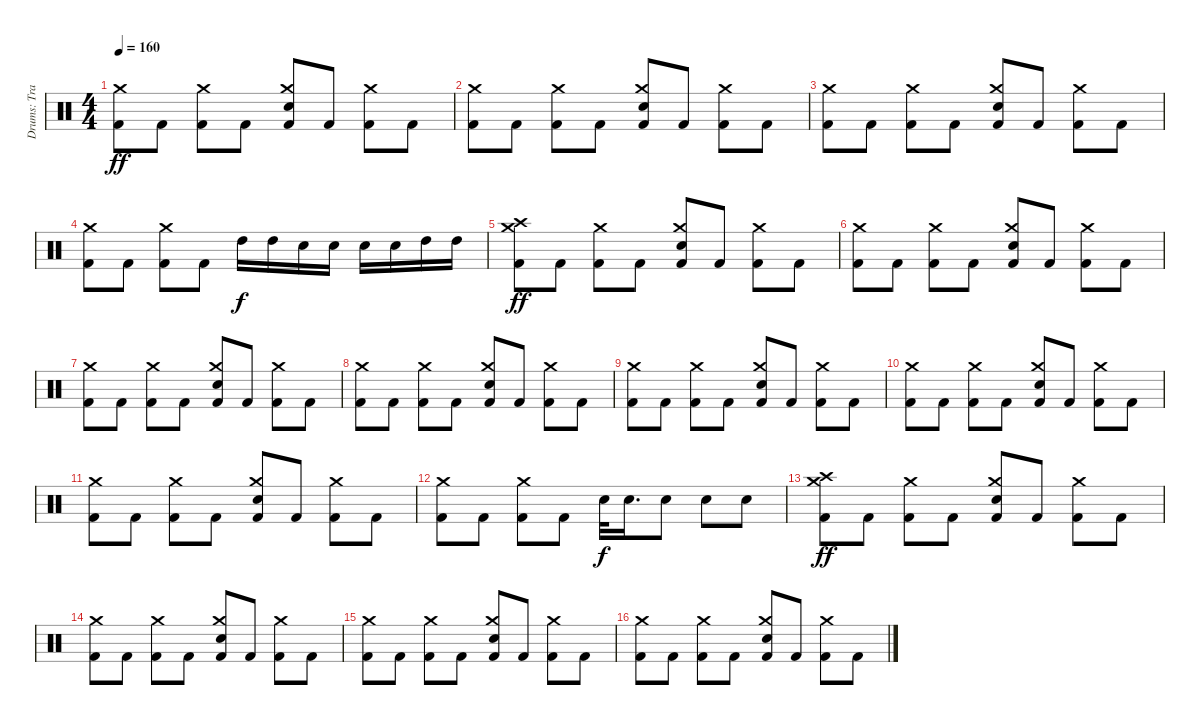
\track ("Drums: Travis Clarke" "Drums: Tra") {instrument percussion}
\staff {score}
\articulation defaults
\ts (4 4)
\tempo 160
\clef neutral
\ks c
("Kick (hit) 2" "Crash medium (hit)").8{dy ff} "Kick (hit) 2".8 ("Kick (hit) 2" "Crash medium (hit)").8 "Kick (hit) 2".8 ("Kick (hit) 2" "Snare (hit) 2" "Crash medium (hit)").8 "Kick (hit) 2".8 ("Kick (hit) 2" "Crash medium (hit)").8 "Kick (hit) 2".8 |
("Kick (hit) 2" "Crash medium (hit)").8 "Kick (hit) 2".8 ("Kick (hit) 2" "Crash medium (hit)").8 "Kick (hit) 2".8 ("Kick (hit) 2" "Snare (hit) 2" "Crash medium (hit)").8 "Kick (hit) 2".8 ("Kick (hit) 2" "Crash medium (hit)").8 "Kick (hit) 2".8 |
("Kick (hit) 2" "Crash medium (hit)").8 "Kick (hit) 2".8 ("Kick (hit) 2" "Crash medium (hit)").8 "Kick (hit) 2".8 ("Kick (hit) 2" "Snare (hit) 2" "Crash medium (hit)").8 "Kick (hit) 2".8 ("Kick (hit) 2" "Crash medium (hit)").8 "Kick (hit) 2".8 |
("Kick (hit) 2" "Crash medium (hit)").8 "Kick (hit) 2".8 ("Kick (hit) 2" "Crash medium (hit)").8 "Kick (hit) 2".8 "High Tom (hit)".16{dy f} "High Tom (hit)".16 "Snare (hit) 2".16 "Snare (hit) 2".16 "Snare (hit) 2".16 "Snare (hit) 2".16 "High Tom (hit)".16 "High Tom (hit)".16 |
("Kick (hit) 2" "Crash high (hit)" "Crash medium (hit)").8{dy ff} "Kick (hit) 2".8 ("Kick (hit) 2" "Crash medium (hit)").8 "Kick (hit) 2".8 ("Kick (hit) 2" "Snare (hit) 2" "Crash medium (hit)").8 "Kick (hit) 2".8 ("Kick (hit) 2" "Crash medium (hit)").8 "Kick (hit) 2".8 |
("Kick (hit) 2" "Crash medium (hit)").8 "Kick (hit) 2".8 ("Kick (hit) 2" "Crash medium (hit)").8 "Kick (hit) 2".8 ("Kick (hit) 2" "Snare (hit) 2" "Crash medium (hit)").8 "Kick (hit) 2".8 ("Kick (hit) 2" "Crash medium (hit)").8 "Kick (hit) 2".8 |
("Kick (hit) 2" "Crash medium (hit)").8 "Kick (hit) 2".8 ("Kick (hit) 2" "Crash medium (hit)").8 "Kick (hit) 2".8 ("Kick (hit) 2" "Snare (hit) 2" "Crash medium (hit)").8 "Kick (hit) 2".8 ("Kick (hit) 2" "Crash medium (hit)").8 "Kick (hit) 2".8 |
("Kick (hit) 2" "Crash medium (hit)").8 "Kick (hit) 2".8 ("Kick (hit) 2" "Crash medium (hit)").8 "Kick (hit) 2".8 ("Kick (hit) 2" "Snare (hit) 2" "Crash medium (hit)").8 "Kick (hit) 2".8 ("Kick (hit) 2" "Crash medium (hit)").8 "Kick (hit) 2".8 |
("Kick (hit) 2" "Crash medium (hit)").8 "Kick (hit) 2".8 ("Kick (hit) 2" "Crash medium (hit)").8 "Kick (hit) 2".8 ("Kick (hit) 2" "Snare (hit) 2" "Crash medium (hit)").8 "Kick (hit) 2".8 ("Kick (hit) 2" "Crash medium (hit)").8 "Kick (hit) 2".8 |
("Kick (hit) 2" "Crash medium (hit)").8 "Kick (hit) 2".8 ("Kick (hit) 2" "Crash medium (hit)").8 "Kick (hit) 2".8 ("Kick (hit) 2" "Snare (hit) 2" "Crash medium (hit)").8 "Kick (hit) 2".8 ("Kick (hit) 2" "Crash medium (hit)").8 "Kick (hit) 2".8 |
("Kick (hit) 2" "Crash medium (hit)").8 "Kick (hit) 2".8 ("Kick (hit) 2" "Crash medium (hit)").8 "Kick (hit) 2".8 ("Kick (hit) 2" "Snare (hit) 2" "Crash medium (hit)").8 "Kick (hit) 2".8 ("Kick (hit) 2" "Crash medium (hit)").8 "Kick (hit) 2".8 |
("Kick (hit) 2" "Crash medium (hit)").8 "Kick (hit) 2".8 ("Kick (hit) 2" "Crash medium (hit)").8 "Kick (hit) 2".8 "Snare (hit) 2".32{dy f} "Snare (hit) 2".16{d} "Snare (hit) 2".8 "Snare (hit) 2".8 "Snare (hit) 2".8 |
("Kick (hit) 2" "Crash high (hit)" "Crash medium (hit)").8{dy ff} "Kick (hit) 2".8 ("Kick (hit) 2" "Crash medium (hit)").8 "Kick (hit) 2".8 ("Kick (hit) 2" "Snare (hit) 2" "Crash medium (hit)").8 "Kick (hit) 2".8 ("Kick (hit) 2" "Crash medium (hit)").8 "Kick (hit) 2".8 |
("Kick (hit) 2" "Crash medium (hit)").8 "Kick (hit) 2".8 ("Kick (hit) 2" "Crash medium (hit)").8 "Kick (hit) 2".8 ("Kick (hit) 2" "Snare (hit) 2" "Crash medium (hit)").8 "Kick (hit) 2".8 ("Kick (hit) 2" "Crash medium (hit)").8 "Kick (hit) 2".8 |
("Kick (hit) 2" "Crash medium (hit)").8 "Kick (hit) 2".8 ("Kick (hit) 2" "Crash medium (hit)").8 "Kick (hit) 2".8 ("Kick (hit) 2" "Snare (hit) 2" "Crash medium (hit)").8 "Kick (hit) 2".8 ("Kick (hit) 2" "Crash medium (hit)").8 "Kick (hit) 2".8 |
("Kick (hit) 2" "Crash medium (hit)").8 "Kick (hit) 2".8 ("Kick (hit) 2" "Crash medium (hit)").8 "Kick (hit) 2".8 ("Kick (hit) 2" "Snare (hit) 2" "Crash medium (hit)").8 "Kick (hit) 2".8 ("Kick (hit) 2" "Crash medium (hit)").8 "Kick (hit) 2".8
